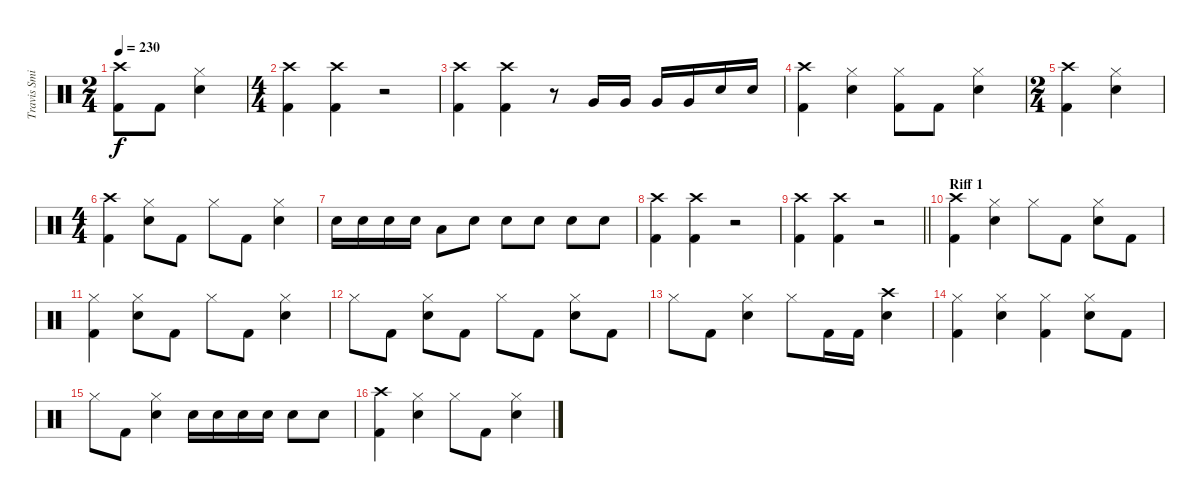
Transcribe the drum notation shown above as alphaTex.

\track ("Travis Smith (Drums)" "Travis Smi") {instrument percussion}
\staff {score}
\articulation defaults
\ts (2 4)
\tempo 230
\clef neutral
\ks c
("Crash high (hit)" "Kick (hit) 2").8{dy f} "Kick (hit) 2".8 ("Hi-Hat (closed)" "Electric Snare (hit)").4 |
\ts (4 4)
("Crash high (hit)" "Kick (hit) 2").4 ("Crash high (hit)" "Kick (hit) 2").4 r.2 |
("Crash high (hit)" "Kick (hit) 2").4 ("Crash high (hit)" "Kick (hit) 2").4 r.8 "Very Low Tom (hit)".16 "Very Low Tom (hit)".16 "Very Low Tom (hit)".16 "Very Low Tom (hit)".16 "Electric Snare (hit)".16 "Electric Snare (hit)".16 |
("Crash high (hit)" "Kick (hit) 2").4 ("Hi-Hat (closed)" "Electric Snare (hit)").4 ("Hi-Hat (closed)" "Kick (hit) 2").8 "Kick (hit) 2".8 ("Hi-Hat (closed)" "Electric Snare (hit)").4 |
\ts (2 4)
("Crash high (hit)" "Kick (hit) 2").4 ("Hi-Hat (closed)" "Electric Snare (hit)").4 |
\ts (4 4)
("Crash high (hit)" "Kick (hit) 2").4 ("Hi-Hat (closed)" "Electric Snare (hit)").8 "Kick (hit) 2".8 "Hi-Hat (closed)".8 "Kick (hit) 2".8 ("Hi-Hat (closed)" "Electric Snare (hit)").4 |
"Electric Snare (hit)".16 "Electric Snare (hit)".16 "Electric Snare (hit)".16 "Electric Snare (hit)".16 "Low Floor Tom (hit)".8 "Electric Snare (hit)".8 "Electric Snare (hit)".8 "Electric Snare (hit)".8 "Electric Snare (hit)".8 "Electric Snare (hit)".8 |
("Crash high (hit)" "Kick (hit) 2").4 ("Crash high (hit)" "Kick (hit) 2").4 r.2 |
\barLineRight lightlight
("Crash high (hit)" "Kick (hit) 2").4 ("Crash high (hit)" "Kick (hit) 2").4 r.2 |
\section ("" "Riff 1")
("Crash high (hit)" "Kick (hit) 2").4 ("Hi-Hat (closed)" "Electric Snare (hit)").4 "Hi-Hat (closed)".8 "Kick (hit) 2".8 ("Hi-Hat (closed)" "Electric Snare (hit)").8 "Kick (hit) 2".8 |
("Hi-Hat (closed)" "Kick (hit) 2").4 ("Hi-Hat (closed)" "Electric Snare (hit)").8 "Kick (hit) 2".8 "Hi-Hat (closed)".8 "Kick (hit) 2".8 ("Hi-Hat (closed)" "Electric Snare (hit)").4 |
"Hi-Hat (closed)".8 "Kick (hit) 2".8 ("Hi-Hat (closed)" "Electric Snare (hit)").8 "Kick (hit) 2".8 "Hi-Hat (closed)".8 "Kick (hit) 2".8 ("Hi-Hat (closed)" "Electric Snare (hit)").8 "Kick (hit) 2".8 |
"Hi-Hat (closed)".8 "Kick (hit) 2".8 ("Hi-Hat (closed)" "Electric Snare (hit)").4 "Hi-Hat (closed)".8 "Kick (hit) 2".16 "Kick (hit) 2".16 ("Crash high (hit)" "Electric Snare (hit)").4 |
("Hi-Hat (closed)" "Kick (hit) 2").4 ("Hi-Hat (closed)" "Electric Snare (hit)").4 ("Hi-Hat (closed)" "Kick (hit) 2").4 ("Hi-Hat (closed)" "Electric Snare (hit)").8 "Kick (hit) 2".8 |
"Hi-Hat (closed)".8 "Kick (hit) 2".8 ("Hi-Hat (closed)" "Electric Snare (hit)").4 "Electric Snare (hit)".16 "Electric Snare (hit)".16 "Electric Snare (hit)".16 "Electric Snare (hit)".16 "Electric Snare (hit)".8 "Electric Snare (hit)".8 |
("Crash high (hit)" "Kick (hit) 2").4 ("Hi-Hat (closed)" "Electric Snare (hit)").4 "Hi-Hat (closed)".8 "Kick (hit) 2".8 ("Hi-Hat (closed)" "Electric Snare (hit)").4
